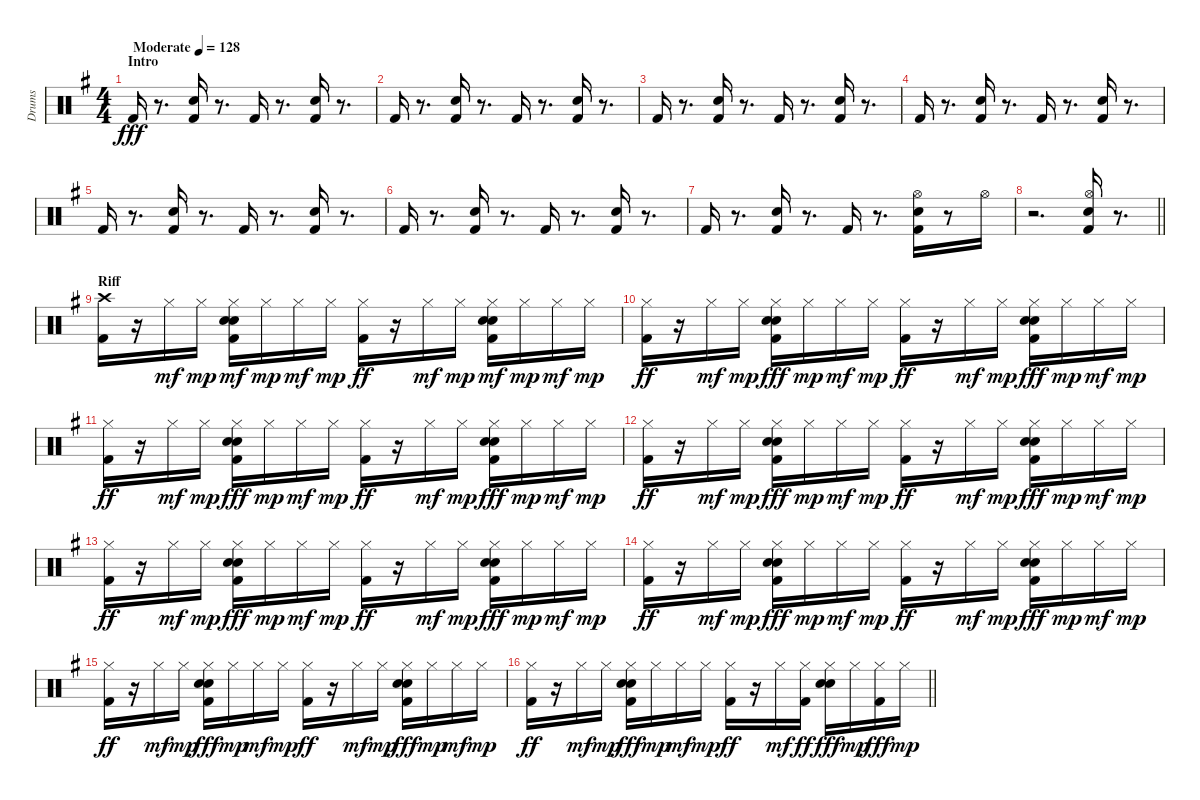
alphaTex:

\track ("Drums" "Drums") {instrument percussion}
\staff {score}
\articulation defaults
\ts (4 4)
\section ("" "Intro")
\tempo (128 "Moderate")
\clef neutral
\ks eminor "Kick (hit) 2".16{dy fff}
r.8{d} ("Kick (hit) 2" "Hand Clap (hit)").16 r.8{d} "Kick (hit) 2".16 r.8{d} ("Kick (hit) 2" "Hand Clap (hit)").16 r.8{d} |
"Kick (hit) 2".16 r.8{d} ("Kick (hit) 2" "Hand Clap (hit)").16 r.8{d} "Kick (hit) 2".16 r.8{d} ("Kick (hit) 2" "Hand Clap (hit)").16 r.8{d} |
"Kick (hit) 2".16 r.8{d} ("Kick (hit) 2" "Hand Clap (hit)").16 r.8{d} "Kick (hit) 2".16 r.8{d} ("Kick (hit) 2" "Hand Clap (hit)").16 r.8{d} |
"Kick (hit) 2".16 r.8{d} ("Kick (hit) 2" "Hand Clap (hit)").16 r.8{d} "Kick (hit) 2".16 r.8{d} ("Kick (hit) 2" "Hand Clap (hit)").16 r.8{d} |
"Kick (hit) 2".16 r.8{d} ("Kick (hit) 2" "Hand Clap (hit)").16 r.8{d} "Kick (hit) 2".16 r.8{d} ("Kick (hit) 2" "Hand Clap (hit)").16 r.8{d} |
"Kick (hit) 2".16 r.8{d} ("Kick (hit) 2" "Hand Clap (hit)").16 r.8{d} "Kick (hit) 2".16 r.8{d} ("Kick (hit) 2" "Hand Clap (hit)").16 r.8{d} |
"Kick (hit) 2".16 r.8{d} ("Kick (hit) 2" "Hand Clap (hit)").16 r.8{d} "Kick (hit) 2".16 r.8{d} ("Kick (hit) 2" "Hand Clap (hit)" "Hi-Hat (open)").16 r.8 "Hi-Hat (open)".16 |
\barLineRight lightlight
r.2{d} ("Kick (hit) 2" "Electric Snare (hit)" "Hi-Hat (open)").16 r.8{d} |
\section ("" "Riff")
("Crash high (hit)" "Kick (hit) 2").16 r.16 "Hi-Hat (closed)".16{dy mf} "Hi-Hat (closed)".16{dy mp} ("Hand Clap (hit)" "Electric Snare (hit)" "Kick (hit) 2" "Hi-Hat (closed)").16{dy mf} "Hi-Hat (closed)".16{dy mp} "Hi-Hat (closed)".16{dy mf} "Hi-Hat (closed)".16{dy mp} ("Kick (hit) 2" "Hi-Hat (closed)").16{dy ff} r.16 "Hi-Hat (closed)".16{dy mf} "Hi-Hat (closed)".16{dy mp} ("Hand Clap (hit)" "Kick (hit) 2" "Electric Snare (hit)" "Hi-Hat (closed)").16{dy mf} "Hi-Hat (closed)".16{dy mp} "Hi-Hat (closed)".16{dy mf} "Hi-Hat (closed)".16{dy mp} |
("Kick (hit) 2" "Hi-Hat (closed)").16{dy ff} r.16 "Hi-Hat (closed)".16{dy mf} "Hi-Hat (closed)".16{dy mp} ("Hand Clap (hit)" "Kick (hit) 2" "Hi-Hat (closed)" "Electric Snare (hit)").16{dy fff} "Hi-Hat (closed)".16{dy mp} "Hi-Hat (closed)".16{dy mf} "Hi-Hat (closed)".16{dy mp} ("Kick (hit) 2" "Hi-Hat (closed)").16{dy ff} r.16 "Hi-Hat (closed)".16{dy mf} "Hi-Hat (closed)".16{dy mp} ("Hand Clap (hit)" "Kick (hit) 2" "Hi-Hat (closed)" "Electric Snare (hit)").16{dy fff} "Hi-Hat (closed)".16{dy mp} "Hi-Hat (closed)".16{dy mf} "Hi-Hat (closed)".16{dy mp} |
("Kick (hit) 2" "Hi-Hat (closed)").16{dy ff} r.16 "Hi-Hat (closed)".16{dy mf} "Hi-Hat (closed)".16{dy mp} ("Hand Clap (hit)" "Kick (hit) 2" "Hi-Hat (closed)" "Electric Snare (hit)").16{dy fff} "Hi-Hat (closed)".16{dy mp} "Hi-Hat (closed)".16{dy mf} "Hi-Hat (closed)".16{dy mp} ("Kick (hit) 2" "Hi-Hat (closed)").16{dy ff} r.16 "Hi-Hat (closed)".16{dy mf} "Hi-Hat (closed)".16{dy mp} ("Hand Clap (hit)" "Kick (hit) 2" "Hi-Hat (closed)" "Electric Snare (hit)").16{dy fff} "Hi-Hat (closed)".16{dy mp} "Hi-Hat (closed)".16{dy mf} "Hi-Hat (closed)".16{dy mp} |
("Kick (hit) 2" "Hi-Hat (closed)").16{dy ff} r.16 "Hi-Hat (closed)".16{dy mf} "Hi-Hat (closed)".16{dy mp} ("Hand Clap (hit)" "Kick (hit) 2" "Hi-Hat (closed)" "Electric Snare (hit)").16{dy fff} "Hi-Hat (closed)".16{dy mp} "Hi-Hat (closed)".16{dy mf} "Hi-Hat (closed)".16{dy mp} ("Kick (hit) 2" "Hi-Hat (closed)").16{dy ff} r.16 "Hi-Hat (closed)".16{dy mf} "Hi-Hat (closed)".16{dy mp} ("Hand Clap (hit)" "Kick (hit) 2" "Hi-Hat (closed)" "Electric Snare (hit)").16{dy fff} "Hi-Hat (closed)".16{dy mp} "Hi-Hat (closed)".16{dy mf} "Hi-Hat (closed)".16{dy mp} |
("Kick (hit) 2" "Hi-Hat (closed)").16{dy ff} r.16 "Hi-Hat (closed)".16{dy mf} "Hi-Hat (closed)".16{dy mp} ("Hand Clap (hit)" "Kick (hit) 2" "Hi-Hat (closed)" "Electric Snare (hit)").16{dy fff} "Hi-Hat (closed)".16{dy mp} "Hi-Hat (closed)".16{dy mf} "Hi-Hat (closed)".16{dy mp} ("Kick (hit) 2" "Hi-Hat (closed)").16{dy ff} r.16 "Hi-Hat (closed)".16{dy mf} "Hi-Hat (closed)".16{dy mp} ("Hand Clap (hit)" "Kick (hit) 2" "Hi-Hat (closed)" "Electric Snare (hit)").16{dy fff} "Hi-Hat (closed)".16{dy mp} "Hi-Hat (closed)".16{dy mf} "Hi-Hat (closed)".16{dy mp} |
("Kick (hit) 2" "Hi-Hat (closed)").16{dy ff} r.16 "Hi-Hat (closed)".16{dy mf} "Hi-Hat (closed)".16{dy mp} ("Hand Clap (hit)" "Kick (hit) 2" "Hi-Hat (closed)" "Electric Snare (hit)").16{dy fff} "Hi-Hat (closed)".16{dy mp} "Hi-Hat (closed)".16{dy mf} "Hi-Hat (closed)".16{dy mp} ("Kick (hit) 2" "Hi-Hat (closed)").16{dy ff} r.16 "Hi-Hat (closed)".16{dy mf} "Hi-Hat (closed)".16{dy mp} ("Hand Clap (hit)" "Kick (hit) 2" "Hi-Hat (closed)" "Electric Snare (hit)").16{dy fff} "Hi-Hat (closed)".16{dy mp} "Hi-Hat (closed)".16{dy mf} "Hi-Hat (closed)".16{dy mp} |
("Kick (hit) 2" "Hi-Hat (closed)").16{dy ff} r.16 "Hi-Hat (closed)".16{dy mf} "Hi-Hat (closed)".16{dy mp} ("Hand Clap (hit)" "Kick (hit) 2" "Hi-Hat (closed)" "Electric Snare (hit)").16{dy fff} "Hi-Hat (closed)".16{dy mp} "Hi-Hat (closed)".16{dy mf} "Hi-Hat (closed)".16{dy mp} ("Kick (hit) 2" "Hi-Hat (closed)").16{dy ff} r.16 "Hi-Hat (closed)".16{dy mf} "Hi-Hat (closed)".16{dy mp} ("Hand Clap (hit)" "Kick (hit) 2" "Hi-Hat (closed)" "Electric Snare (hit)").16{dy fff} "Hi-Hat (closed)".16{dy mp} "Hi-Hat (closed)".16{dy mf} "Hi-Hat (closed)".16{dy mp} |
\barLineRight lightlight
("Kick (hit) 2" "Hi-Hat (closed)").16{dy ff} r.16 "Hi-Hat (closed)".16{dy mf} "Hi-Hat (closed)".16{dy mp} ("Hand Clap (hit)" "Kick (hit) 2" "Hi-Hat (closed)" "Electric Snare (hit)").16{dy fff} "Hi-Hat (closed)".16{dy mp} "Hi-Hat (closed)".16{dy mf} "Hi-Hat (closed)".16{dy mp} ("Kick (hit) 2" "Hi-Hat (closed)").16{dy ff} r.16 "Hi-Hat (closed)".16{dy mf} ("Hi-Hat (closed)" "Kick (hit) 2").16{dy ff} ("Hand Clap (hit)" "Hi-Hat (closed)" "Electric Snare (hit)").16{dy fff} "Hi-Hat (closed)".16{dy mp} ("Hi-Hat (closed)" "Kick (hit) 2").16{dy fff} "Hi-Hat (closed)".16{dy mp}
